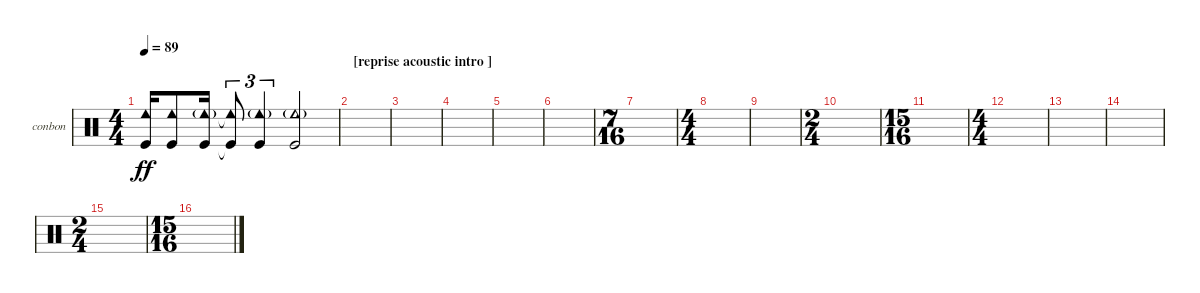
\bracketExtendMode groupsimilarinstruments
\firstSystemTrackNameOrientation horizontal
\otherSystemsTrackNameOrientation horizontal
\track ("Bongos N Congas" "conbon") {instrument percussion}
\staff {score}
\articulation defaults
\ts (4 4)
\tempo 89
\clef neutral
\ks aminor
("Kick (hit)"{t} "Cowbell low (hit)"{t}).16{dy ff} ("Kick (hit)" "Cowbell low (hit)").8 ("Kick (hit)" "Cowbell low (hit)"{g}).16 ("Kick (hit)"{t} "Cowbell low (hit)"{t}).8{tu (3 2)} ("Kick (hit)" "Cowbell low (hit)"{g}).4{tu (3 2)} ("Kick (hit)" "Cowbell low (hit)"{g}).2 |
\section ("" "[reprise acoustic intro ]")
|
|
|
|
|
\ts (7 16)
|
\ts (4 4)
|
|
\ts (2 4)
|
\ts (15 16)
|
\ts (4 4)
|
|
|
\ts (2 4)
|
\ts (15 16)
